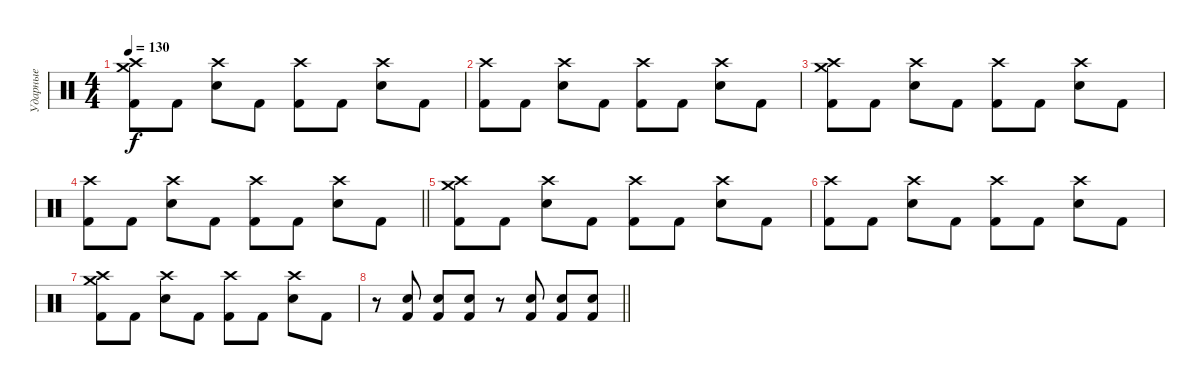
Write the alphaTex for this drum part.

\track ("Ударные" "Ударные") {instrument percussion}
\staff {score}
\articulation defaults
\ts (4 4)
\tempo 130
\clef neutral
\ks c
("Kick (hit) 2" "Crash medium (hit)" "Crash high (hit)").8{dy f} "Kick (hit) 2".8 ("Electric Snare (hit)" "Crash high (hit)").8 "Kick (hit) 2".8 ("Kick (hit) 2" "Crash high (hit)").8 "Kick (hit) 2".8 ("Electric Snare (hit)" "Crash high (hit)").8 "Kick (hit) 2".8 |
("Kick (hit) 2" "Crash high (hit)").8 "Kick (hit) 2".8 ("Electric Snare (hit)" "Crash high (hit)").8 "Kick (hit) 2".8 ("Kick (hit) 2" "Crash high (hit)").8 "Kick (hit) 2".8 ("Electric Snare (hit)" "Crash high (hit)").8 "Kick (hit) 2".8 |
("Kick (hit) 2" "Crash medium (hit)" "Crash high (hit)").8 "Kick (hit) 2".8 ("Electric Snare (hit)" "Crash high (hit)").8 "Kick (hit) 2".8 ("Kick (hit) 2" "Crash high (hit)").8 "Kick (hit) 2".8 ("Electric Snare (hit)" "Crash high (hit)").8 "Kick (hit) 2".8 |
\barLineRight lightlight
("Kick (hit) 2" "Crash high (hit)").8 "Kick (hit) 2".8 ("Electric Snare (hit)" "Crash high (hit)").8 "Kick (hit) 2".8 ("Kick (hit) 2" "Crash high (hit)").8 "Kick (hit) 2".8 ("Electric Snare (hit)" "Crash high (hit)").8 "Kick (hit) 2".8 |
("Kick (hit) 2" "Crash medium (hit)" "Crash high (hit)").8 "Kick (hit) 2".8 ("Electric Snare (hit)" "Crash high (hit)").8 "Kick (hit) 2".8 ("Kick (hit) 2" "Crash high (hit)").8 "Kick (hit) 2".8 ("Electric Snare (hit)" "Crash high (hit)").8 "Kick (hit) 2".8 |
("Kick (hit) 2" "Crash high (hit)").8 "Kick (hit) 2".8 ("Electric Snare (hit)" "Crash high (hit)").8 "Kick (hit) 2".8 ("Kick (hit) 2" "Crash high (hit)").8 "Kick (hit) 2".8 ("Electric Snare (hit)" "Crash high (hit)").8 "Kick (hit) 2".8 |
("Kick (hit) 2" "Crash medium (hit)" "Crash high (hit)").8 "Kick (hit) 2".8 ("Electric Snare (hit)" "Crash high (hit)").8 "Kick (hit) 2".8 ("Kick (hit) 2" "Crash high (hit)").8 "Kick (hit) 2".8 ("Electric Snare (hit)" "Crash high (hit)").8 "Kick (hit) 2".8 |
\barLineRight lightlight
r.8 ("Kick (hit) 2" "Electric Snare (hit)").8 ("Kick (hit) 2" "Electric Snare (hit)").8 ("Kick (hit) 2" "Electric Snare (hit)").8 r.8 ("Kick (hit) 2" "Electric Snare (hit)").8 ("Kick (hit) 2" "Electric Snare (hit)").8 ("Kick (hit) 2" "Electric Snare (hit)").8
